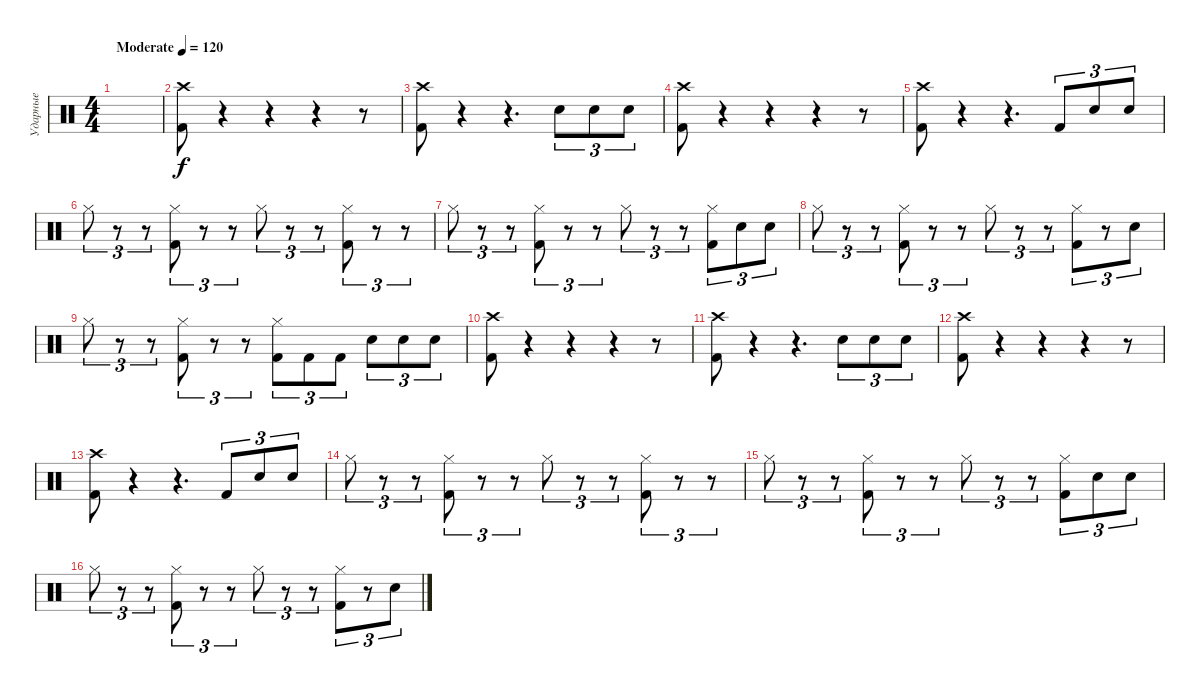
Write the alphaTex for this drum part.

\track ("Ударные" "Ударные") {instrument percussion}
\staff {score}
\articulation defaults
\ts (4 4)
\tempo (120 "Moderate")
\clef neutral
\ks c
|
("Crash high (hit)" "Kick (hit) 2").8 r.4 r.4 r.4 r.8 |
("Kick (hit) 2" "Crash high (hit)").8 r.4 r.4{d} "Snare (hit) 2".8{tu (3 2)} "Snare (hit) 2".8{tu (3 2)} "Snare (hit) 2".8{tu (3 2)} |
("Kick (hit) 2" "Crash high (hit)").8 r.4 r.4 r.4 r.8 |
("Kick (hit) 2" "Crash high (hit)").8 r.4 r.4{d} "Kick (hit) 2".8{tu (3 2)} "Snare (hit) 2".8{tu (3 2)} "Snare (hit) 2".8{tu (3 2)} |
"Hi-Hat (closed)".8{tu (3 2)} r.8{tu (3 2)} r.8{tu (3 2)} ("Hi-Hat (closed)" "Kick (hit) 2").8{tu (3 2)} r.8{tu (3 2)} r.8{tu (3 2)} "Hi-Hat (closed)".8{tu (3 2)} r.8{tu (3 2)} r.8{tu (3 2)} ("Hi-Hat (closed)" "Kick (hit) 2").8{tu (3 2)} r.8{tu (3 2)} r.8{tu (3 2)} |
"Hi-Hat (closed)".8{tu (3 2)} r.8{tu (3 2)} r.8{tu (3 2)} ("Hi-Hat (closed)" "Kick (hit) 2").8{tu (3 2)} r.8{tu (3 2)} r.8{tu (3 2)} "Hi-Hat (closed)".8{tu (3 2)} r.8{tu (3 2)} r.8{tu (3 2)} ("Hi-Hat (closed)" "Kick (hit) 2").8{tu (3 2)} "Snare (hit) 2".8{tu (3 2)} "Snare (hit) 2".8{tu (3 2)} |
"Hi-Hat (closed)".8{tu (3 2)} r.8{tu (3 2)} r.8{tu (3 2)} ("Hi-Hat (closed)" "Kick (hit) 2").8{tu (3 2)} r.8{tu (3 2)} r.8{tu (3 2)} "Hi-Hat (closed)".8{tu (3 2)} r.8{tu (3 2)} r.8{tu (3 2)} ("Hi-Hat (closed)" "Kick (hit) 2").8{tu (3 2)} r.8{tu (3 2)} "Snare (hit) 2".8{tu (3 2)} |
"Hi-Hat (closed)".8{tu (3 2)} r.8{tu (3 2)} r.8{tu (3 2)} ("Hi-Hat (closed)" "Kick (hit) 2").8{tu (3 2)} r.8{tu (3 2)} r.8{tu (3 2)} ("Hi-Hat (closed)" "Kick (hit) 2").8{tu (3 2)} "Kick (hit) 2".8{tu (3 2)} "Kick (hit) 2".8{tu (3 2)} "Snare (hit) 2".8{tu (3 2)} "Snare (hit) 2".8{tu (3 2)} "Snare (hit) 2".8{tu (3 2)} |
("Crash high (hit)" "Kick (hit) 2").8 r.4 r.4 r.4 r.8 |
("Kick (hit) 2" "Crash high (hit)").8 r.4 r.4{d} "Snare (hit) 2".8{tu (3 2)} "Snare (hit) 2".8{tu (3 2)} "Snare (hit) 2".8{tu (3 2)} |
("Kick (hit) 2" "Crash high (hit)").8 r.4 r.4 r.4 r.8 |
("Kick (hit) 2" "Crash high (hit)").8 r.4 r.4{d} "Kick (hit) 2".8{tu (3 2)} "Snare (hit) 2".8{tu (3 2)} "Snare (hit) 2".8{tu (3 2)} |
"Hi-Hat (closed)".8{tu (3 2)} r.8{tu (3 2)} r.8{tu (3 2)} ("Hi-Hat (closed)" "Kick (hit) 2").8{tu (3 2)} r.8{tu (3 2)} r.8{tu (3 2)} "Hi-Hat (closed)".8{tu (3 2)} r.8{tu (3 2)} r.8{tu (3 2)} ("Hi-Hat (closed)" "Kick (hit) 2").8{tu (3 2)} r.8{tu (3 2)} r.8{tu (3 2)} |
"Hi-Hat (closed)".8{tu (3 2)} r.8{tu (3 2)} r.8{tu (3 2)} ("Hi-Hat (closed)" "Kick (hit) 2").8{tu (3 2)} r.8{tu (3 2)} r.8{tu (3 2)} "Hi-Hat (closed)".8{tu (3 2)} r.8{tu (3 2)} r.8{tu (3 2)} ("Hi-Hat (closed)" "Kick (hit) 2").8{tu (3 2)} "Snare (hit) 2".8{tu (3 2)} "Snare (hit) 2".8{tu (3 2)} |
"Hi-Hat (closed)".8{tu (3 2)} r.8{tu (3 2)} r.8{tu (3 2)} ("Hi-Hat (closed)" "Kick (hit) 2").8{tu (3 2)} r.8{tu (3 2)} r.8{tu (3 2)} "Hi-Hat (closed)".8{tu (3 2)} r.8{tu (3 2)} r.8{tu (3 2)} ("Hi-Hat (closed)" "Kick (hit) 2").8{tu (3 2)} r.8{tu (3 2)} "Snare (hit) 2".8{tu (3 2)}
